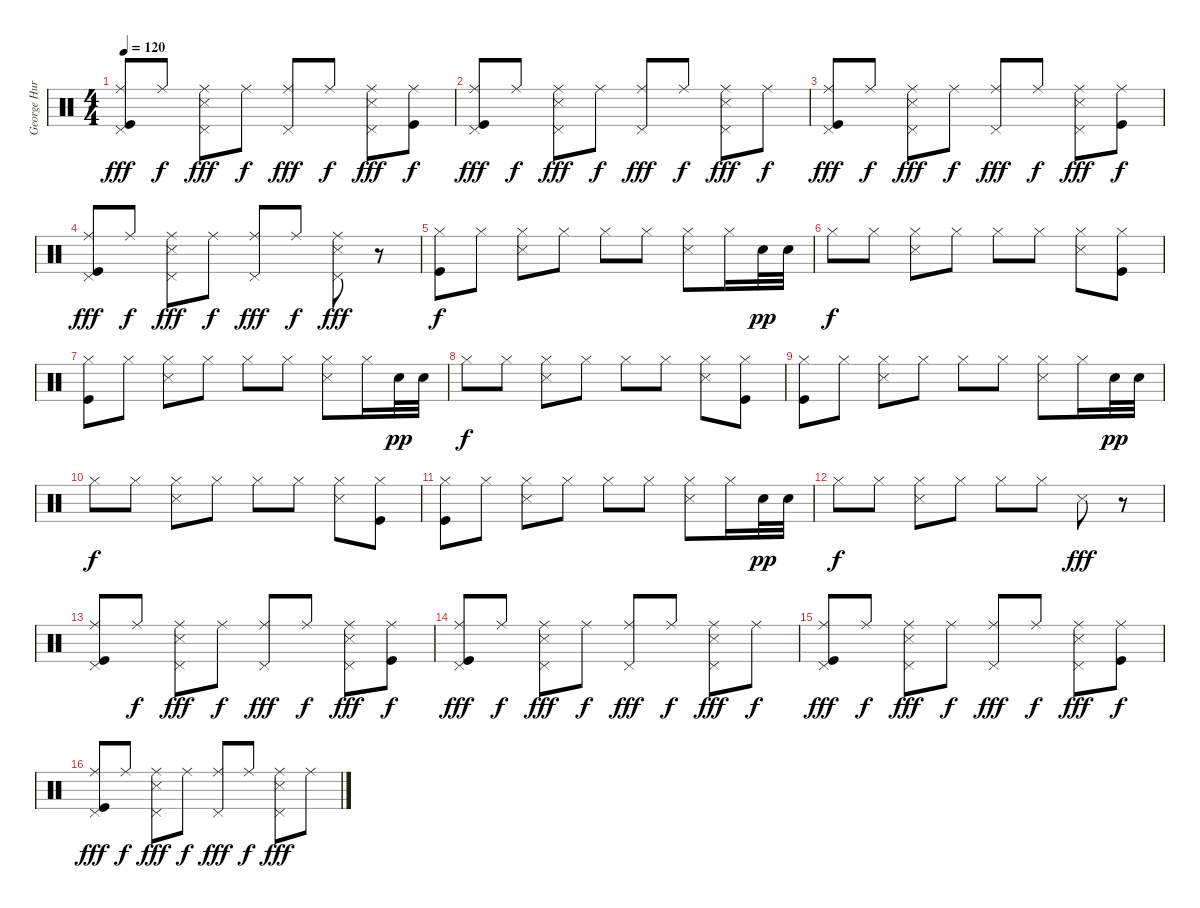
\track ("George Hurley" "George Hur") {instrument percussion}
\staff {score}
\articulation defaults
\ts (4 4)
\tempo 120
\clef neutral
\ks c
("Ride (middle)" "Kick (hit)" "Pedal Hi-Hat (hit)").8{dy fff} "Ride (middle)".8{dy f} ("Ride (middle)" "Snare (side stick) 3" "Pedal Hi-Hat (hit)").8{dy fff} "Ride (middle)".8{dy f} ("Ride (middle)" "Pedal Hi-Hat (hit)").8{dy fff} "Ride (middle)".8{dy f} ("Ride (middle)" "Snare (side stick) 3" "Pedal Hi-Hat (hit)").8{dy fff} ("Ride (middle)" "Kick (hit)").8{dy f} |
("Ride (middle)" "Kick (hit)" "Pedal Hi-Hat (hit)").8{dy fff} "Ride (middle)".8{dy f} ("Ride (middle)" "Snare (side stick) 3" "Pedal Hi-Hat (hit)").8{dy fff} "Ride (middle)".8{dy f} ("Ride (middle)" "Pedal Hi-Hat (hit)").8{dy fff} "Ride (middle)".8{dy f} ("Ride (middle)" "Snare (side stick) 3" "Pedal Hi-Hat (hit)").8{dy fff} "Ride (middle)".8{dy f} |
("Ride (middle)" "Kick (hit)" "Pedal Hi-Hat (hit)").8{dy fff} "Ride (middle)".8{dy f} ("Ride (middle)" "Snare (side stick) 3" "Pedal Hi-Hat (hit)").8{dy fff} "Ride (middle)".8{dy f} ("Ride (middle)" "Pedal Hi-Hat (hit)").8{dy fff} "Ride (middle)".8{dy f} ("Ride (middle)" "Snare (side stick) 3" "Pedal Hi-Hat (hit)").8{dy fff} ("Ride (middle)" "Kick (hit)").8{dy f} |
("Ride (middle)" "Kick (hit)" "Pedal Hi-Hat (hit)").8{dy fff} "Ride (middle)".8{dy f} ("Ride (middle)" "Snare (side stick) 3" "Pedal Hi-Hat (hit)").8{dy fff} "Ride (middle)".8{dy f} ("Ride (middle)" "Pedal Hi-Hat (hit)").8{dy fff} "Ride (middle)".8{dy f} ("Ride (middle)" "Snare (side stick) 3" "Pedal Hi-Hat (hit)").8{dy fff} r.8 |
("Hi-Hat (closed)" "Kick (hit)").8{dy f} "Hi-Hat (closed)".8 ("Hi-Hat (closed)" "Snare (side stick) 3").8 "Hi-Hat (closed)".8 "Hi-Hat (closed)".8 "Hi-Hat (closed)".8 ("Hi-Hat (closed)" "Snare (side stick) 3").8 "Hi-Hat (closed)".16 "Snare (hit) 2".32{dy pp} "Snare (hit) 2".32 |
"Hi-Hat (closed)".8{dy f} "Hi-Hat (closed)".8 ("Hi-Hat (closed)" "Snare (side stick) 3").8 "Hi-Hat (closed)".8 "Hi-Hat (closed)".8 "Hi-Hat (closed)".8 ("Hi-Hat (closed)" "Snare (side stick) 3").8 ("Hi-Hat (closed)" "Kick (hit)").8 |
("Hi-Hat (closed)" "Kick (hit)").8 "Hi-Hat (closed)".8 ("Hi-Hat (closed)" "Snare (side stick) 3").8 "Hi-Hat (closed)".8 "Hi-Hat (closed)".8 "Hi-Hat (closed)".8 ("Hi-Hat (closed)" "Snare (side stick) 3").8 "Hi-Hat (closed)".16 "Snare (hit) 2".32{dy pp} "Snare (hit) 2".32 |
"Hi-Hat (closed)".8{dy f} "Hi-Hat (closed)".8 ("Hi-Hat (closed)" "Snare (side stick) 3").8 "Hi-Hat (closed)".8 "Hi-Hat (closed)".8 "Hi-Hat (closed)".8 ("Hi-Hat (closed)" "Snare (side stick) 3").8 ("Hi-Hat (closed)" "Kick (hit)").8 |
("Hi-Hat (closed)" "Kick (hit)").8 "Hi-Hat (closed)".8 ("Hi-Hat (closed)" "Snare (side stick) 3").8 "Hi-Hat (closed)".8 "Hi-Hat (closed)".8 "Hi-Hat (closed)".8 ("Hi-Hat (closed)" "Snare (side stick) 3").8 "Hi-Hat (closed)".16 "Snare (hit) 2".32{dy pp} "Snare (hit) 2".32 |
"Hi-Hat (closed)".8{dy f} "Hi-Hat (closed)".8 ("Hi-Hat (closed)" "Snare (side stick) 3").8 "Hi-Hat (closed)".8 "Hi-Hat (closed)".8 "Hi-Hat (closed)".8 ("Hi-Hat (closed)" "Snare (side stick) 3").8 ("Hi-Hat (closed)" "Kick (hit)").8 |
("Hi-Hat (closed)" "Kick (hit)").8 "Hi-Hat (closed)".8 ("Hi-Hat (closed)" "Snare (side stick) 3").8 "Hi-Hat (closed)".8 "Hi-Hat (closed)".8 "Hi-Hat (closed)".8 ("Hi-Hat (closed)" "Snare (side stick) 3").8 "Hi-Hat (closed)".16 "Snare (hit) 2".32{dy pp} "Snare (hit) 2".32 |
"Hi-Hat (closed)".8{dy f} "Hi-Hat (closed)".8 ("Hi-Hat (closed)" "Snare (side stick) 3").8 "Hi-Hat (closed)".8 "Hi-Hat (closed)".8 "Hi-Hat (closed)".8 "Snare (side stick) 3".8{dy fff} r.8 |
("Ride (middle)" "Kick (hit)" "Pedal Hi-Hat (hit)").8 "Ride (middle)".8{dy f} ("Ride (middle)" "Snare (side stick) 3" "Pedal Hi-Hat (hit)").8{dy fff} "Ride (middle)".8{dy f} ("Ride (middle)" "Pedal Hi-Hat (hit)").8{dy fff} "Ride (middle)".8{dy f} ("Ride (middle)" "Snare (side stick) 3" "Pedal Hi-Hat (hit)").8{dy fff} ("Ride (middle)" "Kick (hit)").8{dy f} |
("Ride (middle)" "Kick (hit)" "Pedal Hi-Hat (hit)").8{dy fff} "Ride (middle)".8{dy f} ("Ride (middle)" "Snare (side stick) 3" "Pedal Hi-Hat (hit)").8{dy fff} "Ride (middle)".8{dy f} ("Ride (middle)" "Pedal Hi-Hat (hit)").8{dy fff} "Ride (middle)".8{dy f} ("Ride (middle)" "Snare (side stick) 3" "Pedal Hi-Hat (hit)").8{dy fff} "Ride (middle)".8{dy f} |
("Ride (middle)" "Kick (hit)" "Pedal Hi-Hat (hit)").8{dy fff} "Ride (middle)".8{dy f} ("Ride (middle)" "Snare (side stick) 3" "Pedal Hi-Hat (hit)").8{dy fff} "Ride (middle)".8{dy f} ("Ride (middle)" "Pedal Hi-Hat (hit)").8{dy fff} "Ride (middle)".8{dy f} ("Ride (middle)" "Snare (side stick) 3" "Pedal Hi-Hat (hit)").8{dy fff} ("Ride (middle)" "Kick (hit)").8{dy f} |
("Ride (middle)" "Kick (hit)" "Pedal Hi-Hat (hit)").8{dy fff} "Ride (middle)".8{dy f} ("Ride (middle)" "Snare (side stick) 3" "Pedal Hi-Hat (hit)").8{dy fff} "Ride (middle)".8{dy f} ("Ride (middle)" "Pedal Hi-Hat (hit)").8{dy fff} "Ride (middle)".8{dy f} ("Ride (middle)" "Snare (side stick) 3" "Pedal Hi-Hat (hit)").8{dy fff} "Ride (middle)".8
